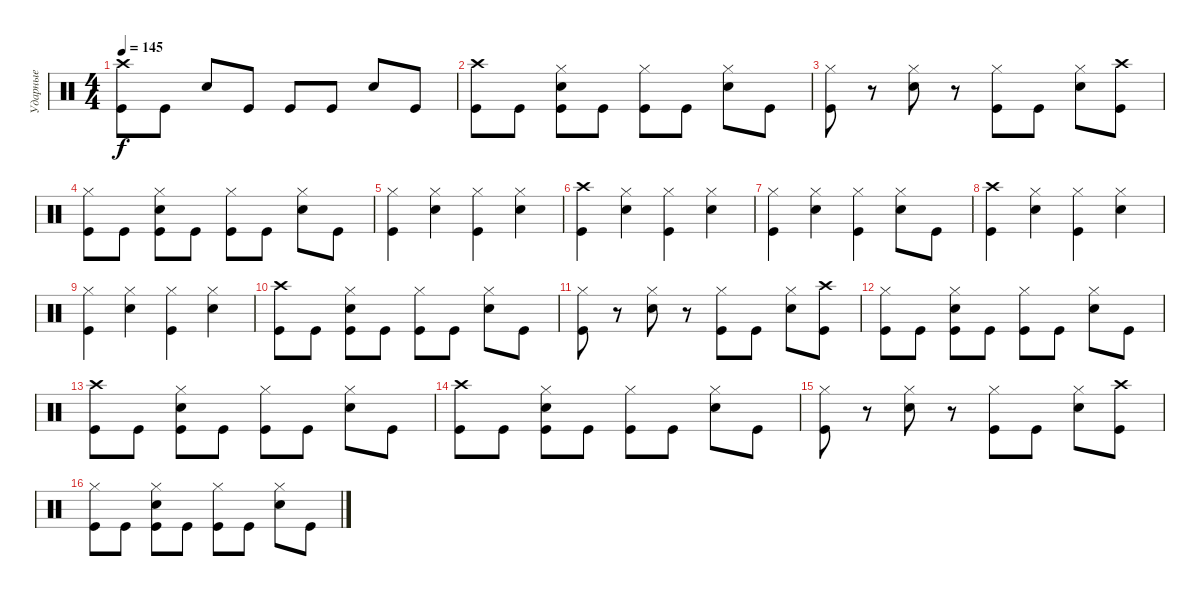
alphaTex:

\track ("Ударные" "Ударные") {instrument percussion}
\staff {score}
\articulation defaults
\ts (4 4)
\tempo 145
\clef neutral
\ks c
("Crash high (hit)"{t} "Kick (hit)"{t}).8{dy f} "Kick (hit)".8 "Electric Snare (hit)".8 "Kick (hit)".8 "Kick (hit)".8 "Kick (hit)".8 "Electric Snare (hit)".8 "Kick (hit)".8 |
("Crash high (hit)" "Kick (hit)").8 "Kick (hit)".8 ("Hi-Hat (closed)" "Electric Snare (hit)" "Kick (hit)").8 "Kick (hit)".8 ("Hi-Hat (closed)" "Kick (hit)").8 "Kick (hit)".8 ("Hi-Hat (closed)" "Electric Snare (hit)").8 "Kick (hit)".8 |
("Hi-Hat (closed)" "Kick (hit)").8 r.8 ("Hi-Hat (closed)" "Electric Snare (hit)").8 r.8 ("Hi-Hat (closed)" "Kick (hit)").8 "Kick (hit)".8 ("Hi-Hat (closed)" "Electric Snare (hit)").8 ("Crash high (hit)" "Kick (hit)").8 |
("Hi-Hat (closed)" "Kick (hit)").8 "Kick (hit)".8 ("Hi-Hat (closed)" "Electric Snare (hit)" "Kick (hit)").8 "Kick (hit)".8 ("Hi-Hat (closed)" "Kick (hit)").8 "Kick (hit)".8 ("Hi-Hat (closed)" "Electric Snare (hit)").8 "Kick (hit)".8 |
("Hi-Hat (closed)" "Kick (hit)").4 ("Hi-Hat (closed)" "Electric Snare (hit)").4 ("Hi-Hat (closed)" "Kick (hit)").4 ("Hi-Hat (closed)" "Electric Snare (hit)").4 |
("Crash high (hit)" "Kick (hit)").4 ("Hi-Hat (closed)" "Electric Snare (hit)").4 ("Hi-Hat (closed)" "Kick (hit)").4 ("Hi-Hat (closed)" "Electric Snare (hit)").4 |
("Hi-Hat (closed)" "Kick (hit)").4 ("Hi-Hat (closed)" "Electric Snare (hit)").4 ("Hi-Hat (closed)" "Kick (hit)").4 ("Hi-Hat (closed)" "Electric Snare (hit)").8 "Kick (hit)".8 |
("Crash high (hit)" "Kick (hit)").4 ("Hi-Hat (closed)" "Electric Snare (hit)").4 ("Hi-Hat (closed)" "Kick (hit)").4 ("Hi-Hat (closed)" "Electric Snare (hit)").4 |
("Hi-Hat (closed)" "Kick (hit)").4 ("Hi-Hat (closed)" "Electric Snare (hit)").4 ("Hi-Hat (closed)" "Kick (hit)").4 ("Hi-Hat (closed)" "Electric Snare (hit)").4 |
("Crash high (hit)" "Kick (hit)").8 "Kick (hit)".8 ("Hi-Hat (closed)" "Electric Snare (hit)" "Kick (hit)").8 "Kick (hit)".8 ("Hi-Hat (closed)" "Kick (hit)").8 "Kick (hit)".8 ("Hi-Hat (closed)" "Electric Snare (hit)").8 "Kick (hit)".8 |
("Hi-Hat (closed)" "Kick (hit)").8 r.8 ("Hi-Hat (closed)" "Electric Snare (hit)").8 r.8 ("Hi-Hat (closed)" "Kick (hit)").8 "Kick (hit)".8 ("Hi-Hat (closed)" "Electric Snare (hit)").8 ("Crash high (hit)" "Kick (hit)").8 |
("Hi-Hat (closed)" "Kick (hit)").8 "Kick (hit)".8 ("Hi-Hat (closed)" "Electric Snare (hit)" "Kick (hit)").8 "Kick (hit)".8 ("Hi-Hat (closed)" "Kick (hit)").8 "Kick (hit)".8 ("Hi-Hat (closed)" "Electric Snare (hit)").8 "Kick (hit)".8 |
("Crash high (hit)" "Kick (hit)").8 "Kick (hit)".8 ("Hi-Hat (closed)" "Electric Snare (hit)" "Kick (hit)").8 "Kick (hit)".8 ("Hi-Hat (closed)" "Kick (hit)").8 "Kick (hit)".8 ("Hi-Hat (closed)" "Electric Snare (hit)").8 "Kick (hit)".8 |
("Crash high (hit)" "Kick (hit)").8 "Kick (hit)".8 ("Hi-Hat (closed)" "Electric Snare (hit)" "Kick (hit)").8 "Kick (hit)".8 ("Hi-Hat (closed)" "Kick (hit)").8 "Kick (hit)".8 ("Hi-Hat (closed)" "Electric Snare (hit)").8 "Kick (hit)".8 |
("Hi-Hat (closed)" "Kick (hit)").8 r.8 ("Hi-Hat (closed)" "Electric Snare (hit)").8 r.8 ("Hi-Hat (closed)" "Kick (hit)").8 "Kick (hit)".8 ("Hi-Hat (closed)" "Electric Snare (hit)").8 ("Crash high (hit)" "Kick (hit)").8 |
("Hi-Hat (closed)" "Kick (hit)").8 "Kick (hit)".8 ("Hi-Hat (closed)" "Electric Snare (hit)" "Kick (hit)").8 "Kick (hit)".8 ("Hi-Hat (closed)" "Kick (hit)").8 "Kick (hit)".8 ("Hi-Hat (closed)" "Electric Snare (hit)").8 "Kick (hit)".8
